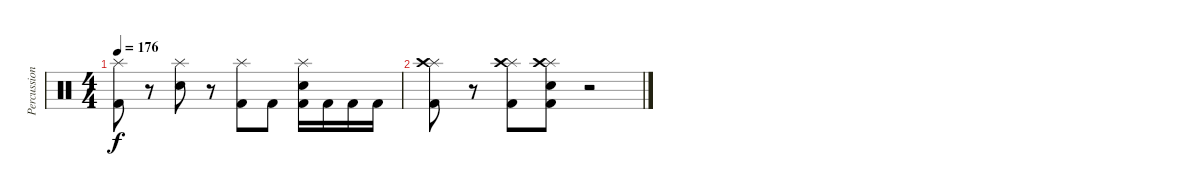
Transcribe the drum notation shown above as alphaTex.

\track ("Percussion" "Percussion") {instrument percussion}
\staff {score}
\articulation defaults
\ts (4 4)
\tempo 176
\clef neutral
\ks c
("Splash (hit)" "Kick (hit) 2").8{dy f} r.8 ("Splash (hit)" "Snare (hit) 2").8 r.8 ("Splash (hit)" "Kick (hit) 2").8 "Kick (hit) 2".8 ("Splash (hit)" "Snare (hit) 2" "Kick (hit) 2").16 "Kick (hit) 2".16 "Kick (hit) 2".16 "Kick (hit) 2".16 |
("Splash (hit)" "Crash high (hit)" "Kick (hit) 2").8 r.8 ("Splash (hit)" "Crash high (hit)" "Kick (hit) 2").8 ("Splash (hit)" "Crash high (hit)" "Snare (hit) 2" "Kick (hit) 2").8 r.2
